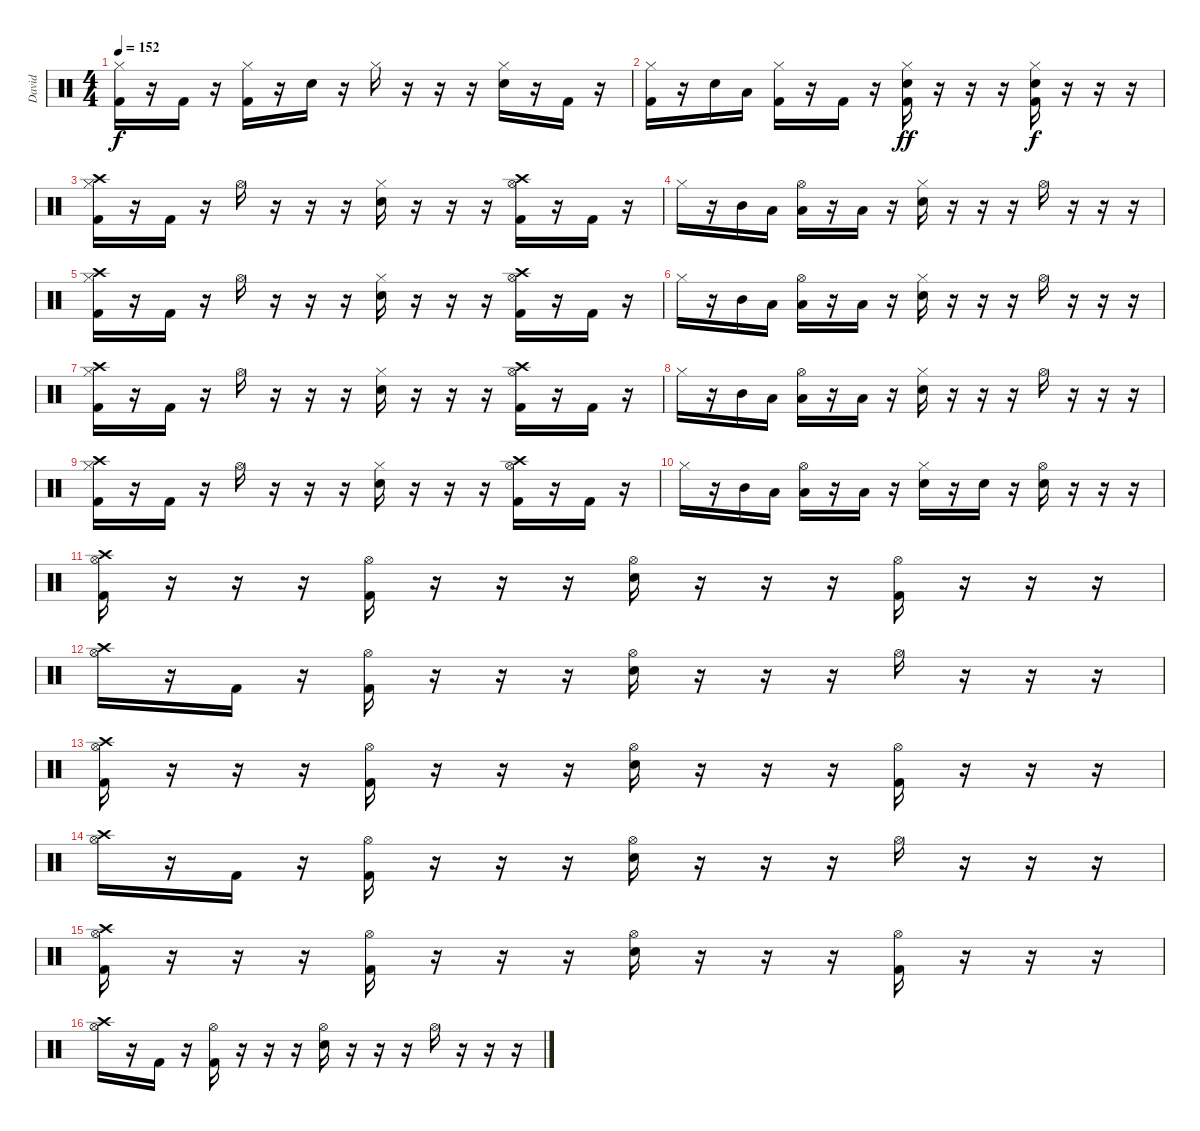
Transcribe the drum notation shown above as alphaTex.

\track ("David" "David") {instrument percussion}
\staff {score}
\articulation defaults
\ts (4 4)
\tempo 152
\clef neutral
\ks c
("Hi-Hat (closed)" "Kick (hit) 2").16{dy f} r.16 "Kick (hit) 2".16 r.16 ("Hi-Hat (closed)" "Kick (hit) 2").16 r.16 "Electric Snare (hit)".16 r.16 "Hi-Hat (closed)".16 r.16 r.16 r.16 ("Hi-Hat (closed)" "Electric Snare (hit)").16 r.16 "Kick (hit) 2".16 r.16 |
("Hi-Hat (closed)" "Kick (hit) 2").16 r.16 "Electric Snare (hit)".16 "Low Tom (hit)".16 ("Hi-Hat (closed)" "Kick (hit) 2").16 r.16 "Kick (hit) 2".16 r.16 ("Hi-Hat (closed)" "Electric Snare (hit)" "Kick (hit) 2").16{dy ff} r.16 r.16 r.16 ("Hi-Hat (closed)" "Electric Snare (hit)" "Kick (hit) 2").16{dy f} r.16 r.16 r.16 |
("Crash high (hit)" "Hi-Hat (closed)" "Kick (hit) 2").16 r.16 "Kick (hit) 2".16 r.16 "Hi-Hat (open)".16 r.16 r.16 r.16 ("Hi-Hat (closed)" "Electric Snare (hit)").16 r.16 r.16 r.16 ("Crash high (hit)" "Hi-Hat (open)" "Kick (hit) 2").16 r.16 "Kick (hit) 2".16 r.16 |
"Hi-Hat (closed)".16 r.16 "Mid Tom (hit)".16 "Low Floor Tom (hit)".16 ("Hi-Hat (open)" "Low Floor Tom (hit)").16 r.16 "Low Floor Tom (hit)".16 r.16 ("Hi-Hat (closed)" "Electric Snare (hit)").16 r.16 r.16 r.16 "Hi-Hat (open)".16 r.16 r.16 r.16 |
("Crash high (hit)" "Hi-Hat (closed)" "Kick (hit) 2").16 r.16 "Kick (hit) 2".16 r.16 "Hi-Hat (open)".16 r.16 r.16 r.16 ("Hi-Hat (closed)" "Electric Snare (hit)").16 r.16 r.16 r.16 ("Crash high (hit)" "Hi-Hat (open)" "Kick (hit) 2").16 r.16 "Kick (hit) 2".16 r.16 |
"Hi-Hat (closed)".16 r.16 "Mid Tom (hit)".16 "Low Floor Tom (hit)".16 ("Hi-Hat (open)" "Low Floor Tom (hit)").16 r.16 "Low Floor Tom (hit)".16 r.16 ("Hi-Hat (closed)" "Electric Snare (hit)").16 r.16 r.16 r.16 "Hi-Hat (open)".16 r.16 r.16 r.16 |
("Crash high (hit)" "Hi-Hat (closed)" "Kick (hit) 2").16 r.16 "Kick (hit) 2".16 r.16 "Hi-Hat (open)".16 r.16 r.16 r.16 ("Hi-Hat (closed)" "Electric Snare (hit)").16 r.16 r.16 r.16 ("Crash high (hit)" "Hi-Hat (open)" "Kick (hit) 2").16 r.16 "Kick (hit) 2".16 r.16 |
"Hi-Hat (closed)".16 r.16 "Mid Tom (hit)".16 "Low Floor Tom (hit)".16 ("Hi-Hat (open)" "Low Floor Tom (hit)").16 r.16 "Low Floor Tom (hit)".16 r.16 ("Hi-Hat (closed)" "Electric Snare (hit)").16 r.16 r.16 r.16 "Hi-Hat (open)".16 r.16 r.16 r.16 |
("Crash high (hit)" "Hi-Hat (closed)" "Kick (hit) 2").16 r.16 "Kick (hit) 2".16 r.16 "Hi-Hat (open)".16 r.16 r.16 r.16 ("Hi-Hat (closed)" "Electric Snare (hit)").16 r.16 r.16 r.16 ("Crash high (hit)" "Hi-Hat (open)" "Kick (hit) 2").16 r.16 "Kick (hit) 2".16 r.16 |
"Hi-Hat (closed)".16 r.16 "Mid Tom (hit)".16 "Low Floor Tom (hit)".16 ("Hi-Hat (open)" "Low Floor Tom (hit)").16 r.16 "Low Floor Tom (hit)".16 r.16 ("Hi-Hat (closed)" "Electric Snare (hit)").16 r.16 "Electric Snare (hit)".16 r.16 ("Hi-Hat (open)" "Electric Snare (hit)").16 r.16 r.16 r.16 |
("Crash high (hit)" "Hi-Hat (open)" "Kick (hit) 2").16 r.16 r.16 r.16 ("Hi-Hat (open)" "Kick (hit) 2").16 r.16 r.16 r.16 ("Hi-Hat (open)" "Electric Snare (hit)").16 r.16 r.16 r.16 ("Hi-Hat (open)" "Kick (hit) 2").16 r.16 r.16 r.16 |
("Crash high (hit)" "Hi-Hat (open)").16 r.16 "Kick (hit) 2".16 r.16 ("Hi-Hat (open)" "Kick (hit) 2").16 r.16 r.16 r.16 ("Hi-Hat (open)" "Electric Snare (hit)").16 r.16 r.16 r.16 "Hi-Hat (open)".16 r.16 r.16 r.16 |
("Crash high (hit)" "Hi-Hat (open)" "Kick (hit) 2").16 r.16 r.16 r.16 ("Hi-Hat (open)" "Kick (hit) 2").16 r.16 r.16 r.16 ("Hi-Hat (open)" "Electric Snare (hit)").16 r.16 r.16 r.16 ("Hi-Hat (open)" "Kick (hit) 2").16 r.16 r.16 r.16 |
("Crash high (hit)" "Hi-Hat (open)").16 r.16 "Kick (hit) 2".16 r.16 ("Hi-Hat (open)" "Kick (hit) 2").16 r.16 r.16 r.16 ("Hi-Hat (open)" "Electric Snare (hit)").16 r.16 r.16 r.16 "Hi-Hat (open)".16 r.16 r.16 r.16 |
("Crash high (hit)" "Hi-Hat (open)" "Kick (hit) 2").16 r.16 r.16 r.16 ("Hi-Hat (open)" "Kick (hit) 2").16 r.16 r.16 r.16 ("Hi-Hat (open)" "Electric Snare (hit)").16 r.16 r.16 r.16 ("Hi-Hat (open)" "Kick (hit) 2").16 r.16 r.16 r.16 |
("Crash high (hit)" "Hi-Hat (open)").16 r.16 "Kick (hit) 2".16 r.16 ("Hi-Hat (open)" "Kick (hit) 2").16 r.16 r.16 r.16 ("Hi-Hat (open)" "Electric Snare (hit)").16 r.16 r.16 r.16 "Hi-Hat (open)".16 r.16 r.16 r.16
